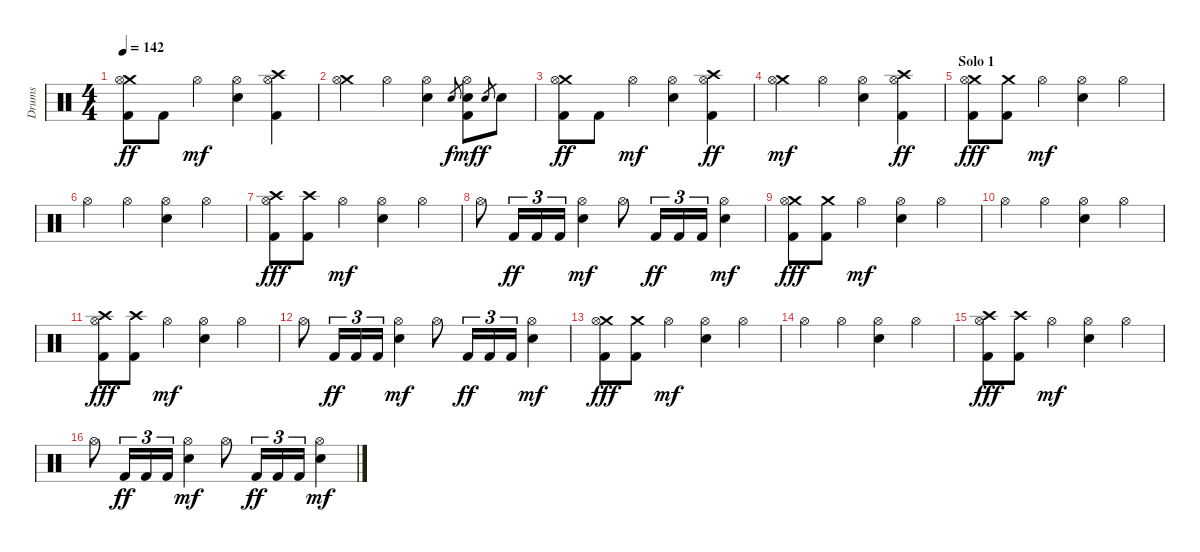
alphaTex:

\track ("Drums" "Drums") {instrument percussion}
\staff {score}
\articulation defaults
\ts (4 4)
\tempo 142
\clef neutral
\ks c
("Crash medium (hit)" "Hi-Hat (open)" "Kick (hit) 2").8{dy ff} "Kick (hit) 2".8 "Hi-Hat (open)".4{dy mf} ("Hi-Hat (open)" "Snare (hit) 2").4 ("Crash high (hit)" "Hi-Hat (open)" "Kick (hit) 2").4 |
("Crash medium (hit)" "Hi-Hat (open)").4 "Hi-Hat (open)".4 ("Hi-Hat (open)" "Snare (hit) 2").4 "Snare (hit) 2".8{gr dy f} ("Hi-Hat (open)" "Snare (hit) 2" "Kick (hit) 2").8{dy mf} "Snare (hit) 2".8{gr dy f} "Snare (hit) 2".8 |
("Crash medium (hit)" "Hi-Hat (open)" "Kick (hit) 2").8{dy ff} "Kick (hit) 2".8 "Hi-Hat (open)".4{dy mf} ("Hi-Hat (open)" "Snare (hit) 2").4 ("Crash high (hit)" "Hi-Hat (open)" "Kick (hit) 2").4{dy ff} |
("Crash medium (hit)" "Hi-Hat (open)").4{dy mf} "Hi-Hat (open)".4 ("Hi-Hat (open)" "Snare (hit) 2").4 ("Crash high (hit)" "Hi-Hat (open)" "Kick (hit) 2").4{dy ff} |
\section ("" "Solo 1")
("Crash medium (hit)" "Hi-Hat (open)" "Kick (hit) 2").8{dy fff} ("Crash medium (hit)" "Kick (hit) 2").8 "Hi-Hat (open)".4{dy mf} ("Hi-Hat (open)" "Snare (hit) 2").4 "Hi-Hat (open)".4 |
"Hi-Hat (open)".4 "Hi-Hat (open)".4 ("Hi-Hat (open)" "Snare (hit) 2").4 "Hi-Hat (open)".4 |
("Crash high (hit)" "Hi-Hat (open)" "Kick (hit) 2").8{dy fff} ("Crash high (hit)" "Kick (hit) 2").8 "Hi-Hat (open)".4{dy mf} ("Hi-Hat (open)" "Snare (hit) 2").4 "Hi-Hat (open)".4 |
"Hi-Hat (open)".8 "Kick (hit) 2".16{tu (3 2) dy ff} "Kick (hit) 2".16{tu (3 2)} "Kick (hit) 2".16{tu (3 2)} ("Hi-Hat (open)" "Snare (hit) 2").4{dy mf} "Hi-Hat (open)".8 "Kick (hit) 2".16{tu (3 2) dy ff} "Kick (hit) 2".16{tu (3 2)} "Kick (hit) 2".16{tu (3 2)} ("Hi-Hat (open)" "Snare (hit) 2").4{dy mf} |
("Crash medium (hit)" "Hi-Hat (open)" "Kick (hit) 2").8{dy fff} ("Crash medium (hit)" "Kick (hit) 2").8 "Hi-Hat (open)".4{dy mf} ("Hi-Hat (open)" "Snare (hit) 2").4 "Hi-Hat (open)".4 |
"Hi-Hat (open)".4 "Hi-Hat (open)".4 ("Hi-Hat (open)" "Snare (hit) 2").4 "Hi-Hat (open)".4 |
("Crash high (hit)" "Hi-Hat (open)" "Kick (hit) 2").8{dy fff} ("Crash high (hit)" "Kick (hit) 2").8 "Hi-Hat (open)".4{dy mf} ("Hi-Hat (open)" "Snare (hit) 2").4 "Hi-Hat (open)".4 |
"Hi-Hat (open)".8 "Kick (hit) 2".16{tu (3 2) dy ff} "Kick (hit) 2".16{tu (3 2)} "Kick (hit) 2".16{tu (3 2)} ("Hi-Hat (open)" "Snare (hit) 2").4{dy mf} "Hi-Hat (open)".8 "Kick (hit) 2".16{tu (3 2) dy ff} "Kick (hit) 2".16{tu (3 2)} "Kick (hit) 2".16{tu (3 2)} ("Hi-Hat (open)" "Snare (hit) 2").4{dy mf} |
("Crash medium (hit)" "Hi-Hat (open)" "Kick (hit) 2").8{dy fff} ("Crash medium (hit)" "Kick (hit) 2").8 "Hi-Hat (open)".4{dy mf} ("Hi-Hat (open)" "Snare (hit) 2").4 "Hi-Hat (open)".4 |
"Hi-Hat (open)".4 "Hi-Hat (open)".4 ("Hi-Hat (open)" "Snare (hit) 2").4 "Hi-Hat (open)".4 |
("Crash high (hit)" "Hi-Hat (open)" "Kick (hit) 2").8{dy fff} ("Crash high (hit)" "Kick (hit) 2").8 "Hi-Hat (open)".4{dy mf} ("Hi-Hat (open)" "Snare (hit) 2").4 "Hi-Hat (open)".4 |
"Hi-Hat (open)".8 "Kick (hit) 2".16{tu (3 2) dy ff} "Kick (hit) 2".16{tu (3 2)} "Kick (hit) 2".16{tu (3 2)} ("Hi-Hat (open)" "Snare (hit) 2").4{dy mf} "Hi-Hat (open)".8 "Kick (hit) 2".16{tu (3 2) dy ff} "Kick (hit) 2".16{tu (3 2)} "Kick (hit) 2".16{tu (3 2)} ("Hi-Hat (open)" "Snare (hit) 2").4{dy mf}
